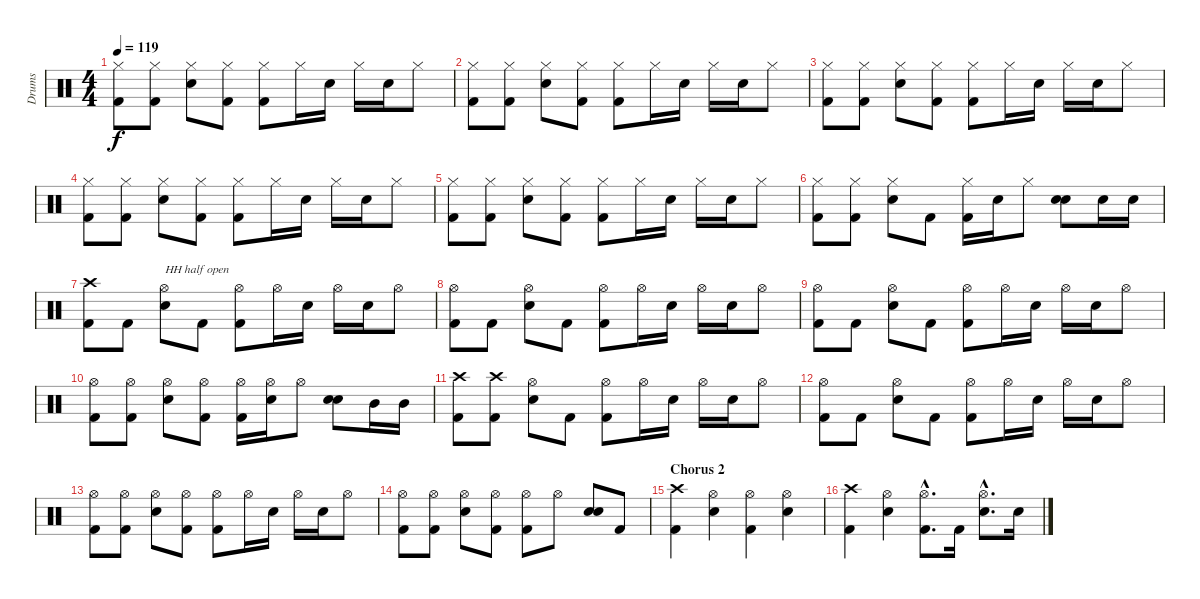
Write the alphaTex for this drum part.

\track ("Drums" "Drums") {instrument percussion}
\staff {score}
\articulation defaults
\ts (4 4)
\tempo 119
\clef neutral
\ks c
("Hi-Hat (closed)" "Kick (hit) 2").8{dy f} ("Hi-Hat (closed)" "Kick (hit) 2").8 ("Hi-Hat (closed)" "Electric Snare (hit)").8 ("Hi-Hat (closed)" "Kick (hit) 2").8 ("Hi-Hat (closed)" "Kick (hit) 2").8 "Hi-Hat (closed)".16 "Electric Snare (hit)".16 "Hi-Hat (closed)".16 "Electric Snare (hit)".16 "Hi-Hat (closed)".8 |
("Hi-Hat (closed)" "Kick (hit) 2").8 ("Hi-Hat (closed)" "Kick (hit) 2").8 ("Hi-Hat (closed)" "Electric Snare (hit)").8 ("Hi-Hat (closed)" "Kick (hit) 2").8 ("Hi-Hat (closed)" "Kick (hit) 2").8 "Hi-Hat (closed)".16 "Electric Snare (hit)".16 "Hi-Hat (closed)".16 "Electric Snare (hit)".16 "Hi-Hat (closed)".8 |
("Hi-Hat (closed)" "Kick (hit) 2").8 ("Hi-Hat (closed)" "Kick (hit) 2").8 ("Hi-Hat (closed)" "Electric Snare (hit)").8 ("Hi-Hat (closed)" "Kick (hit) 2").8 ("Hi-Hat (closed)" "Kick (hit) 2").8 "Hi-Hat (closed)".16 "Electric Snare (hit)".16 "Hi-Hat (closed)".16 "Electric Snare (hit)".16 "Hi-Hat (closed)".8 |
("Hi-Hat (closed)" "Kick (hit) 2").8 ("Hi-Hat (closed)" "Kick (hit) 2").8 ("Hi-Hat (closed)" "Electric Snare (hit)").8 ("Hi-Hat (closed)" "Kick (hit) 2").8 ("Hi-Hat (closed)" "Kick (hit) 2").8 "Hi-Hat (closed)".16 "Electric Snare (hit)".16 "Hi-Hat (closed)".16 "Electric Snare (hit)".16 "Hi-Hat (closed)".8 |
("Hi-Hat (closed)" "Kick (hit) 2").8 ("Hi-Hat (closed)" "Kick (hit) 2").8 ("Hi-Hat (closed)" "Electric Snare (hit)").8 ("Hi-Hat (closed)" "Kick (hit) 2").8 ("Hi-Hat (closed)" "Kick (hit) 2").8 "Hi-Hat (closed)".16 "Electric Snare (hit)".16 "Hi-Hat (closed)".16 "Electric Snare (hit)".16 "Hi-Hat (closed)".8 |
("Hi-Hat (closed)" "Kick (hit) 2").8 ("Hi-Hat (closed)" "Kick (hit) 2").8 ("Hi-Hat (closed)" "Electric Snare (hit)").8 "Kick (hit) 2".8 ("Hi-Hat (closed)" "Kick (hit) 2").16 "Electric Snare (hit)".16 "Hi-Hat (closed)".8 ("Electric Snare (hit)" "Electric Snare (hit)").8 "Electric Snare (hit)".16 "Electric Snare (hit)".16 |
("Crash high (hit)" "Kick (hit) 2").8 "Kick (hit) 2".8 ("Hi-Hat (open)" "Electric Snare (hit)").8{txt "HH half open"} "Kick (hit) 2".8 ("Hi-Hat (open)" "Kick (hit) 2").8 "Hi-Hat (open)".16 "Electric Snare (hit)".16 "Hi-Hat (open)".16 "Electric Snare (hit)".16 "Hi-Hat (open)".8 |
("Hi-Hat (open)" "Kick (hit) 2").8 "Kick (hit) 2".8 ("Hi-Hat (open)" "Electric Snare (hit)").8 "Kick (hit) 2".8 ("Hi-Hat (open)" "Kick (hit) 2").8 "Hi-Hat (open)".16 "Electric Snare (hit)".16 "Hi-Hat (open)".16 "Electric Snare (hit)".16 "Hi-Hat (open)".8 |
("Hi-Hat (open)" "Kick (hit) 2").8 "Kick (hit) 2".8 ("Hi-Hat (open)" "Electric Snare (hit)").8 "Kick (hit) 2".8 ("Hi-Hat (open)" "Kick (hit) 2").8 "Hi-Hat (open)".16 "Electric Snare (hit)".16 "Hi-Hat (open)".16 "Electric Snare (hit)".16 "Hi-Hat (open)".8 |
("Hi-Hat (open)" "Kick (hit) 2").8 ("Hi-Hat (open)" "Kick (hit) 2").8 ("Hi-Hat (open)" "Electric Snare (hit)").8 ("Hi-Hat (open)" "Kick (hit) 2").8 ("Hi-Hat (open)" "Kick (hit) 2").16 ("Hi-Hat (open)" "Electric Snare (hit)").16 "Hi-Hat (open)".8 ("Electric Snare (hit)" "Electric Snare (hit)").8 "Mid Tom (hit)".16 "Mid Tom (hit)".16 |
("Crash high (hit)" "Kick (hit) 2").8 ("Crash high (hit)" "Kick (hit) 2").8 ("Hi-Hat (open)" "Electric Snare (hit)").8 "Kick (hit) 2".8 ("Hi-Hat (open)" "Kick (hit) 2").8 "Hi-Hat (open)".16 "Electric Snare (hit)".16 "Hi-Hat (open)".16 "Electric Snare (hit)".16 "Hi-Hat (open)".8 |
("Hi-Hat (open)" "Kick (hit) 2").8 "Kick (hit) 2".8 ("Hi-Hat (open)" "Electric Snare (hit)").8 "Kick (hit) 2".8 ("Hi-Hat (open)" "Kick (hit) 2").8 "Hi-Hat (open)".16 "Electric Snare (hit)".16 "Hi-Hat (open)".16 "Electric Snare (hit)".16 "Hi-Hat (open)".8 |
("Hi-Hat (open)" "Kick (hit) 2").8 ("Hi-Hat (open)" "Kick (hit) 2").8 ("Hi-Hat (open)" "Electric Snare (hit)").8 ("Hi-Hat (open)" "Kick (hit) 2").8 ("Hi-Hat (open)" "Kick (hit) 2").8 "Hi-Hat (open)".16 "Electric Snare (hit)".16 "Hi-Hat (open)".16 "Electric Snare (hit)".16 "Hi-Hat (open)".8 |
("Hi-Hat (open)" "Kick (hit) 2").8 ("Hi-Hat (open)" "Kick (hit) 2").8 ("Hi-Hat (open)" "Electric Snare (hit)").8 ("Hi-Hat (open)" "Kick (hit) 2").8 ("Hi-Hat (open)" "Kick (hit) 2").8 "Hi-Hat (open)".8 ("Electric Snare (hit)" "Electric Snare (hit)").8 "Kick (hit) 2".8 |
\section ("" "Chorus 2")
("Crash high (hit)" "Kick (hit) 2").4 ("Hi-Hat (open)" "Electric Snare (hit)").4 ("Hi-Hat (open)" "Kick (hit) 2").4 ("Hi-Hat (open)" "Electric Snare (hit)").4 |
("Crash high (hit)" "Kick (hit) 2").4 ("Hi-Hat (open)" "Electric Snare (hit)").4 ("Hi-Hat (open)"{hac} "Kick (hit) 2"{hac}).8{d} "Kick (hit) 2".16 ("Hi-Hat (open)"{hac} "Electric Snare (hit)"{hac}).8{d} "Electric Snare (hit)".16
